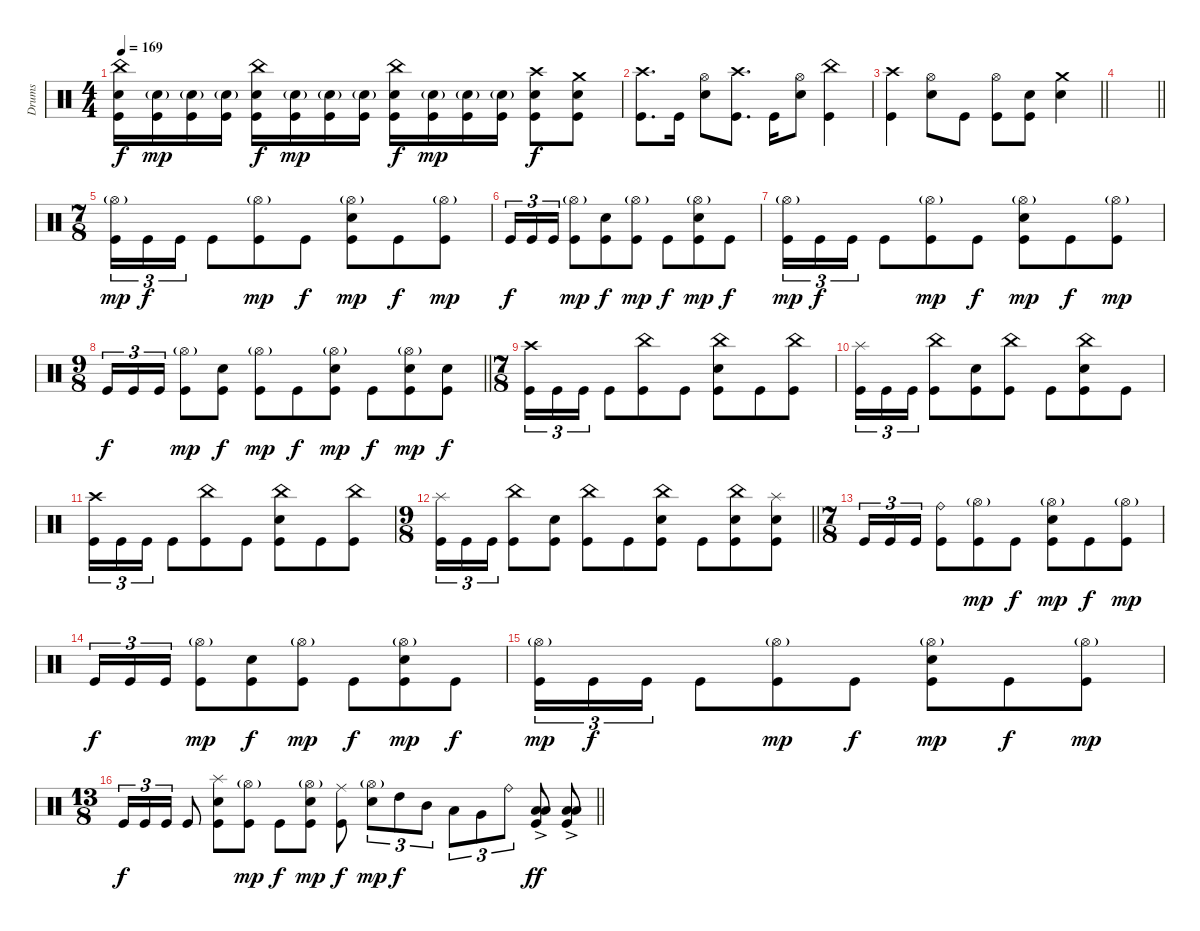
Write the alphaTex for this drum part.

\track ("Drums" "Drums") {instrument percussion}
\staff
\articulation defaults
\ts (4 4)
\tempo 169
\clef neutral
\ks c
("China (hit)" "Electric Snare (hit)" "Kick (hit)").16{dy f} ("Electric Snare (hit)"{g} "Kick (hit)").16{dy mp} ("Electric Snare (hit)"{g} "Kick (hit)").16 ("Electric Snare (hit)"{g} "Kick (hit)").16 ("China (hit)" "Electric Snare (hit)" "Kick (hit)").16{dy f} ("Electric Snare (hit)"{g} "Kick (hit)").16{dy mp} ("Electric Snare (hit)"{g} "Kick (hit)").16 ("Electric Snare (hit)"{g} "Kick (hit)").16 ("China (hit)" "Electric Snare (hit)" "Kick (hit)").16{dy f} ("Electric Snare (hit)"{g} "Kick (hit)").16{dy mp} ("Electric Snare (hit)"{g} "Kick (hit)").16 ("Electric Snare (hit)"{g} "Kick (hit)").16 ("Crash high (hit)" "Electric Snare (hit)" "Kick (hit)").8{dy f} ("Crash medium (hit)" "Electric Snare (hit)" "Kick (hit)").8 |
("Crash high (hit)" "Kick (hit)").8{d} "Kick (hit)".16 ("Hi-Hat (open)" "Electric Snare (hit)").8 ("Crash high (hit)" "Kick (hit)").8{d} "Kick (hit)".16 ("Hi-Hat (open)" "Electric Snare (hit)").8 ("China (hit)" "Kick (hit)").4 |
\barLineRight lightlight
("Crash high (hit)" "Kick (hit)").4 ("Hi-Hat (open)" "Electric Snare (hit)").8 "Kick (hit)".8 ("Hi-Hat (open)" "Kick (hit)").8 ("Electric Snare (hit)" "Kick (hit)").8 ("Crash medium (hit)" "Electric Snare (hit)").4 |
\barLineRight lightlight
|
\ts (7 8)
\section ("" "")
("Hi-Hat (open)"{g} "Kick (hit)").16{tu (3 2) dy mp} "Kick (hit)".16{tu (3 2) dy f} "Kick (hit)".16{tu (3 2)} "Kick (hit)".8 ("Hi-Hat (open)"{g} "Kick (hit)").8{dy mp} "Kick (hit)".8{dy f} ("Hi-Hat (open)"{g} "Electric Snare (hit)" "Kick (hit)").8{dy mp} "Kick (hit)".8{dy f} ("Hi-Hat (open)"{g} "Kick (hit)").8{dy mp} |
"Kick (hit)".16{tu (3 2) dy f} "Kick (hit)".16{tu (3 2)} "Kick (hit)".16{tu (3 2)} ("Hi-Hat (open)"{g} "Kick (hit)").8{dy mp} ("Electric Snare (hit)" "Kick (hit)").8{dy f} ("Hi-Hat (open)"{g} "Kick (hit)").8{dy mp} "Kick (hit)".8{dy f} ("Hi-Hat (open)"{g} "Electric Snare (hit)" "Kick (hit)").8{dy mp} "Kick (hit)".8{dy f} |
("Hi-Hat (open)"{g} "Kick (hit)").16{tu (3 2) dy mp} "Kick (hit)".16{tu (3 2) dy f} "Kick (hit)".16{tu (3 2)} "Kick (hit)".8 ("Hi-Hat (open)"{g} "Kick (hit)").8{dy mp} "Kick (hit)".8{dy f} ("Hi-Hat (open)"{g} "Electric Snare (hit)" "Kick (hit)").8{dy mp} "Kick (hit)".8{dy f} ("Hi-Hat (open)"{g} "Kick (hit)").8{dy mp} |
\ts (9 8)
\barLineRight lightlight "Kick (hit)".16{tu (3 2) dy f} "Kick (hit)".16{tu (3 2)} "Kick (hit)".16{tu (3 2)}
("Hi-Hat (open)"{g} "Kick (hit)").8{dy mp} ("Electric Snare (hit)" "Kick (hit)").8{dy f} ("Hi-Hat (open)"{g} "Kick (hit)").8{dy mp} "Kick (hit)".8{dy f} ("Hi-Hat (open)"{g} "Electric Snare (hit)" "Kick (hit)").8{dy mp} "Kick (hit)".8{dy f} ("Hi-Hat (open)"{g} "Electric Snare (hit)" "Kick (hit)").8{dy mp} ("Electric Snare (hit)" "Kick (hit)").8{dy f} |
\ts (7 8)
("Crash high (hit)" "Kick (hit)").16{tu (3 2)} "Kick (hit)".16{tu (3 2)} "Kick (hit)".16{tu (3 2)} "Kick (hit)".8 ("China (hit)" "Kick (hit)").8 "Kick (hit)".8 ("China (hit)" "Electric Snare (hit)" "Kick (hit)").8 "Kick (hit)".8 ("China (hit)" "Kick (hit)").8 |
("Splash (hit)" "Kick (hit)").16{tu (3 2)} "Kick (hit)".16{tu (3 2)} "Kick (hit)".16{tu (3 2)} ("China (hit)" "Kick (hit)").8 ("Electric Snare (hit)" "Kick (hit)").8 ("China (hit)" "Kick (hit)").8 "Kick (hit)".8 ("China (hit)" "Electric Snare (hit)" "Kick (hit)").8 "Kick (hit)".8 |
("Crash high (hit)" "Kick (hit)").16{tu (3 2)} "Kick (hit)".16{tu (3 2)} "Kick (hit)".16{tu (3 2)} "Kick (hit)".8 ("China (hit)" "Kick (hit)").8 "Kick (hit)".8 ("China (hit)" "Electric Snare (hit)" "Kick (hit)").8 "Kick (hit)".8 ("China (hit)" "Kick (hit)").8 |
\ts (9 8)
\barLineRight lightlight
("Splash (hit)" "Kick (hit)").16{tu (3 2)} "Kick (hit)".16{tu (3 2)} "Kick (hit)".16{tu (3 2)} ("China (hit)" "Kick (hit)").8 ("Electric Snare (hit)" "Kick (hit)").8 ("China (hit)" "Kick (hit)").8 "Kick (hit)".8 ("China (hit)" "Electric Snare (hit)" "Kick (hit)").8 "Kick (hit)".8 ("China (hit)" "Electric Snare (hit)" "Kick (hit)").8 ("Splash (hit)" "Electric Snare (hit)" "Kick (hit)").8 |
\ts (7 8)
"Kick (hit)".16{tu (3 2)} "Kick (hit)".16{tu (3 2)} "Kick (hit)".16{tu (3 2)} ("Ride (bell)" "Kick (hit)").8 ("Hi-Hat (open)"{g} "Kick (hit)").8{dy mp} "Kick (hit)".8{dy f} ("Hi-Hat (open)"{g} "Electric Snare (hit)" "Kick (hit)").8{dy mp} "Kick (hit)".8{dy f} ("Hi-Hat (open)"{g} "Kick (hit)").8{dy mp} |
"Kick (hit)".16{tu (3 2) dy f} "Kick (hit)".16{tu (3 2)} "Kick (hit)".16{tu (3 2)} ("Hi-Hat (open)"{g} "Kick (hit)").8{dy mp} ("Electric Snare (hit)" "Kick (hit)").8{dy f} ("Hi-Hat (open)"{g} "Kick (hit)").8{dy mp} "Kick (hit)".8{dy f} ("Hi-Hat (open)"{g} "Electric Snare (hit)" "Kick (hit)").8{dy mp} "Kick (hit)".8{dy f} |
("Hi-Hat (open)"{g} "Kick (hit)").16{tu (3 2) dy mp} "Kick (hit)".16{tu (3 2) dy f} "Kick (hit)".16{tu (3 2)} "Kick (hit)".8 ("Hi-Hat (open)"{g} "Kick (hit)").8{dy mp} "Kick (hit)".8{dy f} ("Hi-Hat (open)"{g} "Electric Snare (hit)" "Kick (hit)").8{dy mp} "Kick (hit)".8{dy f} ("Hi-Hat (open)"{g} "Kick (hit)").8{dy mp} |
\ts (13 8)
\barLineRight lightlight "Kick (hit)".16{tu (3 2) dy f} "Kick (hit)".16{tu (3 2)} "Kick (hit)".16{tu (3 2)} "Kick (hit)".8
("Splash (hit)" "Electric Snare (hit)" "Kick (hit)").8 ("Hi-Hat (open)"{g} "Kick (hit)").8{dy mp} "Kick (hit)".8{dy f} ("Hi-Hat (open)"{g} "Electric Snare (hit)" "Kick (hit)").8{dy mp} ("Ride (middle)" "Kick (hit)").8{dy f} ("Hi-Hat (open)"{g} "Electric Snare (hit)").8{tu (3 2) dy mp} "High Tom (hit)".8{tu (3 2) dy f} "Mid Tom (hit)".8{tu (3 2)} "Low Tom (hit)".8{tu (3 2)} "Very Low Tom (hit)".8{tu (3 2)} "Ride (bell)".8{tu (3 2)} ("Low Floor Tom (hit)"{ac} "Low Floor Tom (hit)"{ac} "Kick (hit)").8{dy ff} ("Low Floor Tom (hit)"{ac} "Low Floor Tom (hit)"{ac} "Kick (hit)").8
